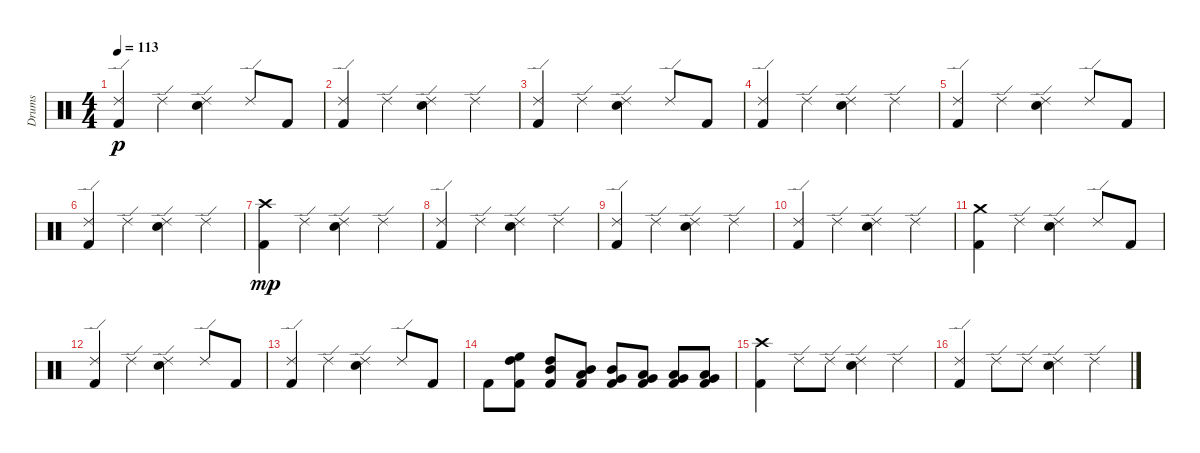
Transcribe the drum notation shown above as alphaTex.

\track ("Drums" "Drums") {instrument percussion}
\staff {score}
\articulation defaults
\ts (4 4)
\tempo 113
\clef neutral
\ks c
("Kick (hit) 2" "Ride (edge) 2").4{dy p} "Ride (edge) 2".4 ("Snare (hit) 2" "Ride (edge) 2").4 "Ride (edge) 2".8 "Kick (hit) 2".8 |
("Kick (hit) 2" "Ride (edge) 2").4 "Ride (edge) 2".4 ("Snare (hit) 2" "Ride (edge) 2").4 "Ride (edge) 2".4 |
("Kick (hit) 2" "Ride (edge) 2").4 "Ride (edge) 2".4 ("Snare (hit) 2" "Ride (edge) 2").4 "Ride (edge) 2".8 "Kick (hit) 2".8 |
("Kick (hit) 2" "Ride (edge) 2").4 "Ride (edge) 2".4 ("Snare (hit) 2" "Ride (edge) 2").4 "Ride (edge) 2".4 |
("Kick (hit) 2" "Ride (edge) 2").4 "Ride (edge) 2".4 ("Snare (hit) 2" "Ride (edge) 2").4 "Ride (edge) 2".8 "Kick (hit) 2".8 |
("Kick (hit) 2" "Ride (edge) 2").4 "Ride (edge) 2".4 ("Snare (hit) 2" "Ride (edge) 2").4 "Ride (edge) 2".4 |
("Kick (hit) 2" "Crash high (hit)").4{dy mp} "Ride (edge) 2".4 ("Snare (hit) 2" "Ride (edge) 2").4 "Ride (edge) 2".4 |
("Kick (hit) 2" "Ride (edge) 2").4 "Ride (edge) 2".4 ("Snare (hit) 2" "Ride (edge) 2").4 "Ride (edge) 2".4 |
("Kick (hit) 2" "Ride (edge) 2").4 "Ride (edge) 2".4 ("Snare (hit) 2" "Ride (edge) 2").4 "Ride (edge) 2".4 |
("Kick (hit) 2" "Ride (edge) 2").4 "Ride (edge) 2".4 ("Snare (hit) 2" "Ride (edge) 2").4 "Ride (edge) 2".4 |
("Kick (hit) 2" "Crash medium (hit)").4 "Ride (edge) 2".4 ("Snare (hit) 2" "Ride (edge) 2").4 "Ride (edge) 2".8 "Kick (hit) 2".8 |
("Kick (hit) 2" "Ride (edge) 2").4 "Ride (edge) 2".4 ("Snare (hit) 2" "Ride (edge) 2").4 "Ride (edge) 2".8 "Kick (hit) 2".8 |
("Kick (hit) 2" "Ride (edge) 2").4 "Ride (edge) 2".4 ("Snare (hit) 2" "Ride (edge) 2").4 "Ride (edge) 2".8 "Kick (hit) 2".8 |
"Kick (hit) 2".8 ("Kick (hit) 2" "High Tom (hit)" "High Floor Tom (hit)").8 ("Kick (hit) 2" "Mid Tom (hit)" "High Tom (hit)").8 ("Kick (hit) 2" "Low Tom (hit)" "Mid Tom (hit)").8 ("Kick (hit) 2" "Very Low Tom (hit)" "Mid Tom (hit)").8 ("Kick (hit) 2" "Very Low Tom (hit)" "Low Tom (hit)").8 ("Kick (hit) 2" "Low Floor Tom (hit)" "Very Low Tom (hit)").8 ("Kick (hit) 2" "Low Floor Tom (hit)" "Very Low Tom (hit)").8 |
("Kick (hit) 2" "Crash high (hit)").4 "Ride (edge) 2".8 "Ride (edge) 2".8 ("Snare (hit) 2" "Ride (edge) 2").4 "Ride (edge) 2".4 |
("Kick (hit) 2" "Ride (edge) 2").4 "Ride (edge) 2".8 "Ride (edge) 2".8 ("Snare (hit) 2" "Ride (edge) 2").4 "Ride (edge) 2".4
